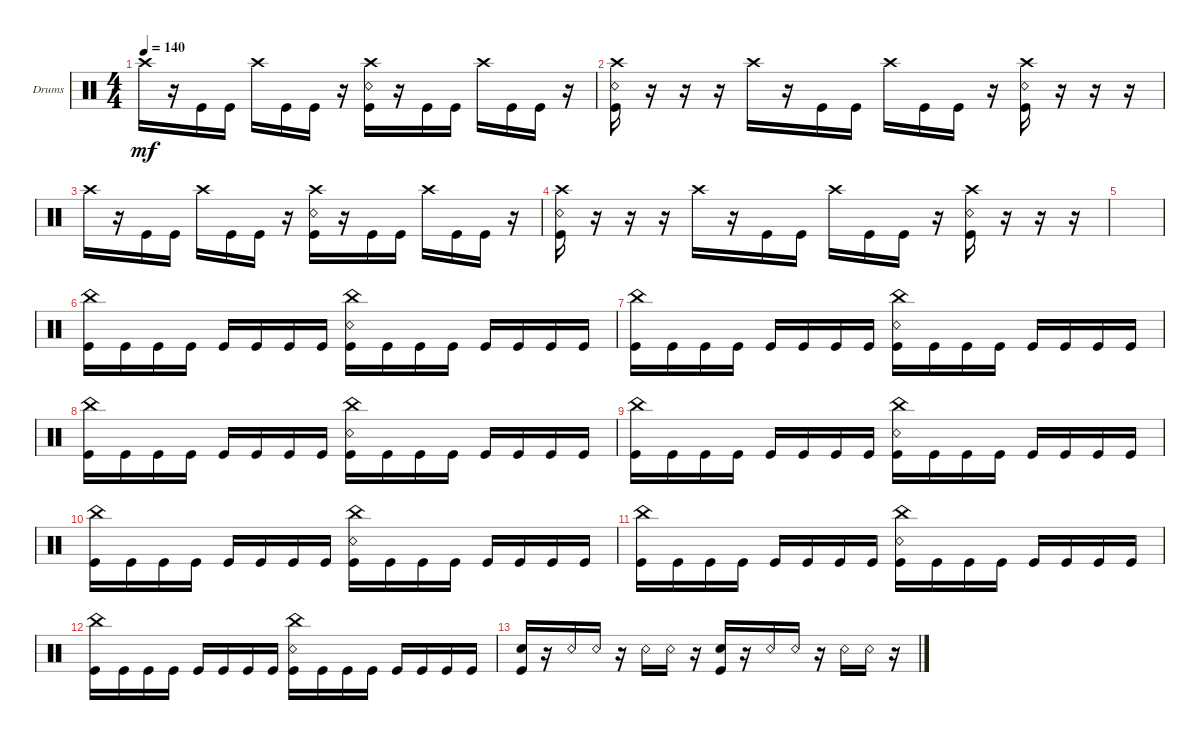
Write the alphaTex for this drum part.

\defaultSystemsLayout 4
\bracketExtendMode groupsimilarinstruments
\firstSystemTrackNameOrientation horizontal
\otherSystemsTrackNameOrientation horizontal
\track ("Drums" "Drums") {instrument percussion}
\staff {score}
\articulation defaults
\ts (4 4)
\tempo 140
\clef neutral
\ks c "Crash high (hit)".16{dy mf}
r.16 "Kick (hit)".16 "Kick (hit)".16 "Crash high (hit)".16 "Kick (hit)".16 "Kick (hit)".16 r.16 ("Snare (rim shot)" "Crash high (hit)" "Kick (hit)").16 r.16 "Kick (hit)".16 "Kick (hit)".16 "Crash high (hit)".16 "Kick (hit)".16 "Kick (hit)".16 r.16 |
("Kick (hit)" "Crash high (hit)" "Snare (rim shot)").16 r.16 r.16 r.16 "Crash high (hit)".16 r.16 "Kick (hit)".16 "Kick (hit)".16 "Crash high (hit)".16 "Kick (hit)".16 "Kick (hit)".16 r.16 ("Snare (rim shot)" "Crash high (hit)" "Kick (hit)").16 r.16 r.16 r.16 |
"Crash high (hit)".16 r.16 "Kick (hit)".16 "Kick (hit)".16 "Crash high (hit)".16 "Kick (hit)".16 "Kick (hit)".16 r.16 ("Snare (rim shot)" "Crash high (hit)" "Kick (hit)").16 r.16 "Kick (hit)".16 "Kick (hit)".16 "Crash high (hit)".16 "Kick (hit)".16 "Kick (hit)".16 r.16 |
("Kick (hit)" "Crash high (hit)" "Snare (rim shot)").16 r.16 r.16 r.16 "Crash high (hit)".16 r.16 "Kick (hit)".16 "Kick (hit)".16 "Crash high (hit)".16 "Kick (hit)".16 "Kick (hit)".16 r.16 ("Snare (rim shot)" "Crash high (hit)" "Kick (hit)").16 r.16 r.16 r.16 |
|
("Kick (hit)" "China (hit)").16 "Kick (hit)".16 "Kick (hit)".16 "Kick (hit)".16 "Kick (hit)".16 "Kick (hit)".16 "Kick (hit)".16 "Kick (hit)".16 ("Kick (hit)" "China (hit)" "Snare (rim shot)").16 "Kick (hit)".16 "Kick (hit)".16 "Kick (hit)".16 "Kick (hit)".16 "Kick (hit)".16 "Kick (hit)".16 "Kick (hit)".16 |
("Kick (hit)" "China (hit)").16 "Kick (hit)".16 "Kick (hit)".16 "Kick (hit)".16 "Kick (hit)".16 "Kick (hit)".16 "Kick (hit)".16 "Kick (hit)".16 ("Kick (hit)" "China (hit)" "Snare (rim shot)").16 "Kick (hit)".16 "Kick (hit)".16 "Kick (hit)".16 "Kick (hit)".16 "Kick (hit)".16 "Kick (hit)".16 "Kick (hit)".16 |
("Kick (hit)" "China (hit)").16 "Kick (hit)".16 "Kick (hit)".16 "Kick (hit)".16 "Kick (hit)".16 "Kick (hit)".16 "Kick (hit)".16 "Kick (hit)".16 ("Kick (hit)" "China (hit)" "Snare (rim shot)").16 "Kick (hit)".16 "Kick (hit)".16 "Kick (hit)".16 "Kick (hit)".16 "Kick (hit)".16 "Kick (hit)".16 "Kick (hit)".16 |
("Kick (hit)" "China (hit)").16 "Kick (hit)".16 "Kick (hit)".16 "Kick (hit)".16 "Kick (hit)".16 "Kick (hit)".16 "Kick (hit)".16 "Kick (hit)".16 ("Kick (hit)" "China (hit)" "Snare (rim shot)").16 "Kick (hit)".16 "Kick (hit)".16 "Kick (hit)".16 "Kick (hit)".16 "Kick (hit)".16 "Kick (hit)".16 "Kick (hit)".16 |
("Kick (hit)" "China (hit)").16 "Kick (hit)".16 "Kick (hit)".16 "Kick (hit)".16 "Kick (hit)".16 "Kick (hit)".16 "Kick (hit)".16 "Kick (hit)".16 ("Kick (hit)" "China (hit)" "Snare (rim shot)").16 "Kick (hit)".16 "Kick (hit)".16 "Kick (hit)".16 "Kick (hit)".16 "Kick (hit)".16 "Kick (hit)".16 "Kick (hit)".16 |
("Kick (hit)" "China (hit)").16 "Kick (hit)".16 "Kick (hit)".16 "Kick (hit)".16 "Kick (hit)".16 "Kick (hit)".16 "Kick (hit)".16 "Kick (hit)".16 ("Kick (hit)" "China (hit)" "Snare (rim shot)").16 "Kick (hit)".16 "Kick (hit)".16 "Kick (hit)".16 "Kick (hit)".16 "Kick (hit)".16 "Kick (hit)".16 "Kick (hit)".16 |
("Kick (hit)" "China (hit)").16 "Kick (hit)".16 "Kick (hit)".16 "Kick (hit)".16 "Kick (hit)".16 "Kick (hit)".16 "Kick (hit)".16 "Kick (hit)".16 ("Kick (hit)" "China (hit)" "Snare (rim shot)").16 "Kick (hit)".16 "Kick (hit)".16 "Kick (hit)".16 "Kick (hit)".16 "Kick (hit)".16 "Kick (hit)".16 "Kick (hit)".16 |
("Snare (hit) 2" "Kick (hit)").16 r.16 "Snare (rim shot)".16 "Snare (rim shot)".16 r.16 "Snare (rim shot)".16 "Snare (rim shot)".16 r.16 ("Snare (hit) 2" "Kick (hit)").16 r.16 "Snare (rim shot)".16 "Snare (rim shot)".16 r.16 "Snare (rim shot)".16 "Snare (rim shot)".16 r.16
